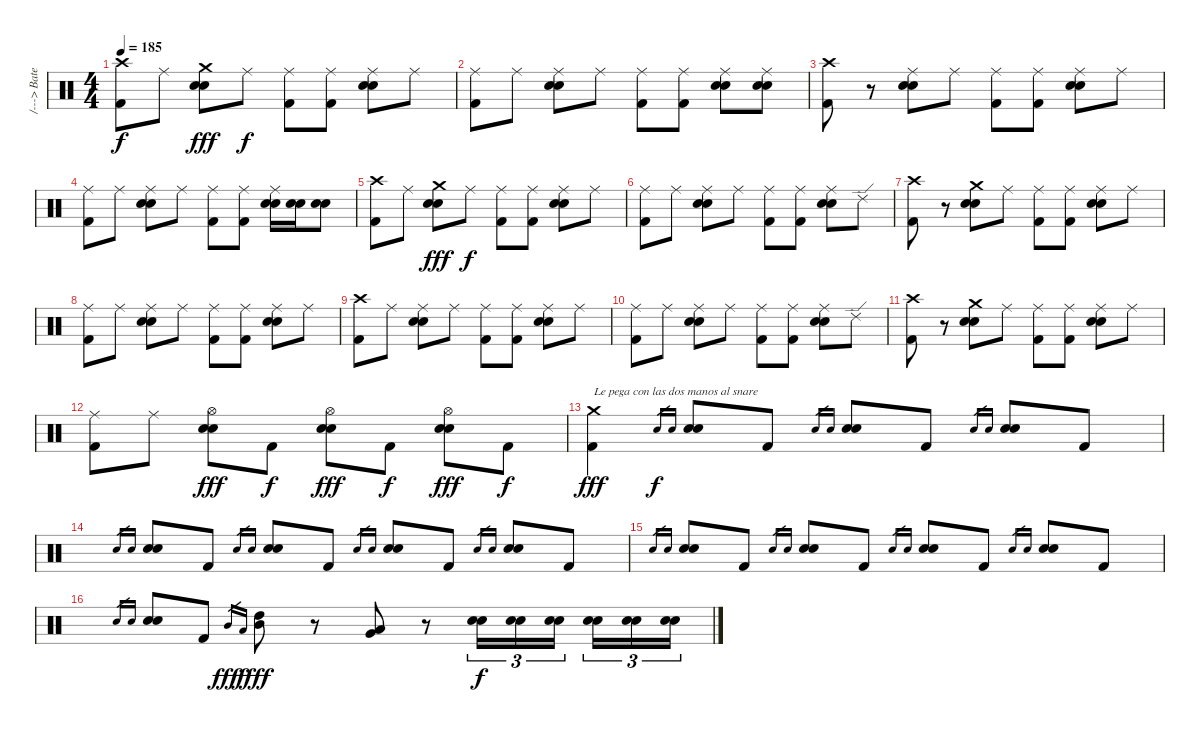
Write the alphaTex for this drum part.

\track ("/---> Bateria <----/" "/---> Bate") {instrument percussion}
\staff {score}
\articulation defaults
\ts (4 4)
\tempo 185
\clef neutral
\ks c
("Crash high (hit)" "Kick (hit) 2").8{dy f} "Ride (middle)".8 ("Crash medium (hit)" "Snare (hit) 2" "Electric Snare (hit)").8{dy fff} "Ride (middle)".8{dy f} ("Ride (middle)" "Kick (hit) 2").8 ("Ride (middle)" "Kick (hit) 2").8 ("Ride (middle)" "Snare (hit) 2" "Electric Snare (hit)").8 "Ride (middle)".8 |
("Ride (middle)" "Kick (hit) 2").8 "Ride (middle)".8 ("Ride (middle)" "Snare (hit) 2" "Electric Snare (hit)").8 "Ride (middle)".8 ("Ride (middle)" "Kick (hit) 2").8 ("Ride (middle)" "Kick (hit) 2").8 ("Ride (middle)" "Snare (hit) 2" "Electric Snare (hit)").8 ("Ride (middle)" "Snare (hit) 2" "Electric Snare (hit)").8 |
("Crash high (hit)" "Kick (hit) 2").8 r.8 ("Ride (middle)" "Snare (hit) 2" "Electric Snare (hit)").8 "Ride (middle)".8 ("Ride (middle)" "Kick (hit) 2").8 ("Ride (middle)" "Kick (hit) 2").8 ("Ride (middle)" "Snare (hit) 2" "Electric Snare (hit)").8 "Ride (middle)".8 |
("Ride (middle)" "Kick (hit) 2").8 "Ride (middle)".8 ("Ride (middle)" "Snare (hit) 2" "Electric Snare (hit)").8 "Ride (middle)".8 ("Ride (middle)" "Kick (hit) 2").8 ("Ride (middle)" "Kick (hit) 2").8 ("Ride (middle)" "Snare (hit) 2" "Electric Snare (hit)").16 ("Snare (hit) 2" "Electric Snare (hit)").16 ("Snare (hit) 2" "Electric Snare (hit)").8 |
("Crash high (hit)" "Kick (hit) 2").8 "Ride (middle)".8 ("Crash medium (hit)" "Snare (hit) 2" "Electric Snare (hit)").8{dy fff} "Ride (middle)".8{dy f} ("Ride (middle)" "Kick (hit) 2").8 ("Ride (middle)" "Kick (hit) 2").8 ("Ride (middle)" "Snare (hit) 2" "Electric Snare (hit)").8 "Ride (middle)".8 |
("Ride (middle)" "Kick (hit) 2").8 "Ride (middle)".8 ("Ride (middle)" "Snare (hit) 2" "Electric Snare (hit)").8 "Ride (middle)".8 ("Ride (middle)" "Kick (hit) 2").8 ("Ride (middle)" "Kick (hit) 2").8 ("Ride (middle)" "Snare (hit) 2" "Electric Snare (hit)").8 "Ride (edge) 2".8 |
("Crash high (hit)" "Kick (hit) 2").8 r.8 ("Crash medium (hit)" "Snare (hit) 2" "Electric Snare (hit)").8 "Ride (middle)".8 ("Ride (middle)" "Kick (hit) 2").8 ("Ride (middle)" "Kick (hit) 2").8 ("Ride (middle)" "Snare (hit) 2" "Electric Snare (hit)").8 "Ride (middle)".8 |
("Ride (middle)" "Kick (hit) 2").8 "Ride (middle)".8 ("Ride (middle)" "Snare (hit) 2" "Electric Snare (hit)").8 "Ride (middle)".8 ("Ride (middle)" "Kick (hit) 2").8 ("Ride (middle)" "Kick (hit) 2").8 ("Ride (middle)" "Snare (hit) 2" "Electric Snare (hit)").8 "Ride (middle)".8 |
("Crash high (hit)" "Kick (hit) 2").8 "Ride (middle)".8 ("Ride (middle)" "Snare (hit) 2" "Electric Snare (hit)").8 "Ride (middle)".8 ("Ride (middle)" "Kick (hit) 2").8 ("Ride (middle)" "Kick (hit) 2").8 ("Ride (middle)" "Snare (hit) 2" "Electric Snare (hit)").8 "Ride (middle)".8 |
("Ride (middle)" "Kick (hit) 2").8 "Ride (middle)".8 ("Ride (middle)" "Snare (hit) 2" "Electric Snare (hit)").8 "Ride (middle)".8 ("Ride (middle)" "Kick (hit) 2").8 ("Ride (middle)" "Kick (hit) 2").8 ("Ride (middle)" "Snare (hit) 2" "Electric Snare (hit)").8 "Ride (edge) 2".8 |
("Crash high (hit)" "Kick (hit) 2").8 r.8 ("Crash medium (hit)" "Snare (hit) 2" "Electric Snare (hit)").8 "Ride (middle)".8 ("Ride (middle)" "Kick (hit) 2").8 ("Ride (middle)" "Kick (hit) 2").8 ("Ride (middle)" "Snare (hit) 2" "Electric Snare (hit)").8 "Ride (middle)".8 |
("Ride (middle)" "Kick (hit) 2").8 "Ride (middle)".8 ("Hi-Hat (open)" "Snare (hit) 2" "Electric Snare (hit)").8{dy fff} "Kick (hit) 2".8{dy f} ("Hi-Hat (open)" "Snare (hit) 2" "Electric Snare (hit)").8{dy fff} "Kick (hit) 2".8{dy f} ("Hi-Hat (open)" "Snare (hit) 2" "Electric Snare (hit)").8{dy fff} "Kick (hit) 2".8{dy f} |
("Crash medium (hit)" "Kick (hit) 2").4{txt "Le pega con las dos manos al snare" dy fff} "Snare (hit) 2".16{gr dy f} "Electric Snare (hit)".16{gr} ("Snare (hit) 2" "Electric Snare (hit)").8 "Kick (hit) 2".8 "Snare (hit) 2".16{gr} "Electric Snare (hit)".16{gr} ("Snare (hit) 2" "Electric Snare (hit)").8 "Kick (hit) 2".8 "Snare (hit) 2".16{gr} "Electric Snare (hit)".16{gr} ("Snare (hit) 2" "Electric Snare (hit)").8 "Kick (hit) 2".8 |
"Snare (hit) 2".16{gr} "Electric Snare (hit)".16{gr} ("Snare (hit) 2" "Electric Snare (hit)").8 "Kick (hit) 2".8 "Snare (hit) 2".16{gr} "Electric Snare (hit)".16{gr} ("Snare (hit) 2" "Electric Snare (hit)").8 "Kick (hit) 2".8 "Snare (hit) 2".16{gr} "Electric Snare (hit)".16{gr} ("Snare (hit) 2" "Electric Snare (hit)").8 "Kick (hit) 2".8 "Snare (hit) 2".16{gr} "Electric Snare (hit)".16{gr} ("Snare (hit) 2" "Electric Snare (hit)").8 "Kick (hit) 2".8 |
"Snare (hit) 2".16{gr} "Electric Snare (hit)".16{gr} ("Snare (hit) 2" "Electric Snare (hit)").8 "Kick (hit) 2".8 "Snare (hit) 2".16{gr} "Electric Snare (hit)".16{gr} ("Snare (hit) 2" "Electric Snare (hit)").8 "Kick (hit) 2".8 "Snare (hit) 2".16{gr} "Electric Snare (hit)".16{gr} ("Snare (hit) 2" "Electric Snare (hit)").8 "Kick (hit) 2".8 "Snare (hit) 2".16{gr} "Electric Snare (hit)".16{gr} ("Snare (hit) 2" "Electric Snare (hit)").8 "Kick (hit) 2".8 |
"Snare (hit) 2".16{gr} "Electric Snare (hit)".16{gr} ("Snare (hit) 2" "Electric Snare (hit)").8 "Kick (hit) 2".8 "Mid Tom (hit)".16{gr dy fff} "Low Tom (hit)".16{gr dy f} ("High Tom (hit)" "Mid Tom (hit)").8{dy fff} r.8 ("Low Tom (hit)" "Very Low Tom (hit)").8 r.8 ("Snare (hit) 2" "Electric Snare (hit)").16{tu (3 2) dy f} ("Snare (hit) 2" "Electric Snare (hit)").16{tu (3 2)} ("Snare (hit) 2" "Electric Snare (hit)").16{tu (3 2)} ("Snare (hit) 2" "Electric Snare (hit)").16{tu (3 2)} ("Snare (hit) 2" "Electric Snare (hit)").16{tu (3 2)} ("Snare (hit) 2" "Electric Snare (hit)").16{tu (3 2)}
